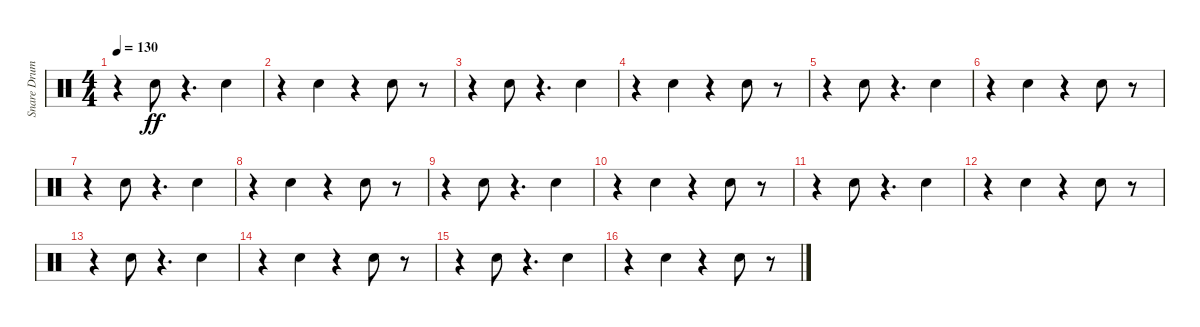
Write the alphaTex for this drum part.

\track ("Snare Drum" "Snare Drum") {instrument percussion}
\staff {score}
\articulation defaults
\ts (4 4)
\tempo 130
\clef neutral
\ks c
r.4{dy ff} "Electric Snare (hit)".8 r.4{d} "Electric Snare (hit)".4 |
r.4 "Electric Snare (hit)".4 r.4 "Electric Snare (hit)".8 r.8 |
r.4 "Electric Snare (hit)".8 r.4{d} "Electric Snare (hit)".4 |
r.4 "Electric Snare (hit)".4 r.4 "Electric Snare (hit)".8 r.8 |
r.4 "Electric Snare (hit)".8 r.4{d} "Electric Snare (hit)".4 |
r.4 "Electric Snare (hit)".4 r.4 "Electric Snare (hit)".8 r.8 |
r.4 "Electric Snare (hit)".8 r.4{d} "Electric Snare (hit)".4 |
r.4 "Electric Snare (hit)".4 r.4 "Electric Snare (hit)".8 r.8 |
r.4 "Electric Snare (hit)".8 r.4{d} "Electric Snare (hit)".4 |
r.4 "Electric Snare (hit)".4 r.4 "Electric Snare (hit)".8 r.8 |
r.4 "Electric Snare (hit)".8 r.4{d} "Electric Snare (hit)".4 |
r.4 "Electric Snare (hit)".4 r.4 "Electric Snare (hit)".8 r.8 |
r.4 "Electric Snare (hit)".8 r.4{d} "Electric Snare (hit)".4 |
r.4 "Electric Snare (hit)".4 r.4 "Electric Snare (hit)".8 r.8 |
r.4 "Electric Snare (hit)".8 r.4{d} "Electric Snare (hit)".4 |
r.4 "Electric Snare (hit)".4 r.4 "Electric Snare (hit)".8 r.8
